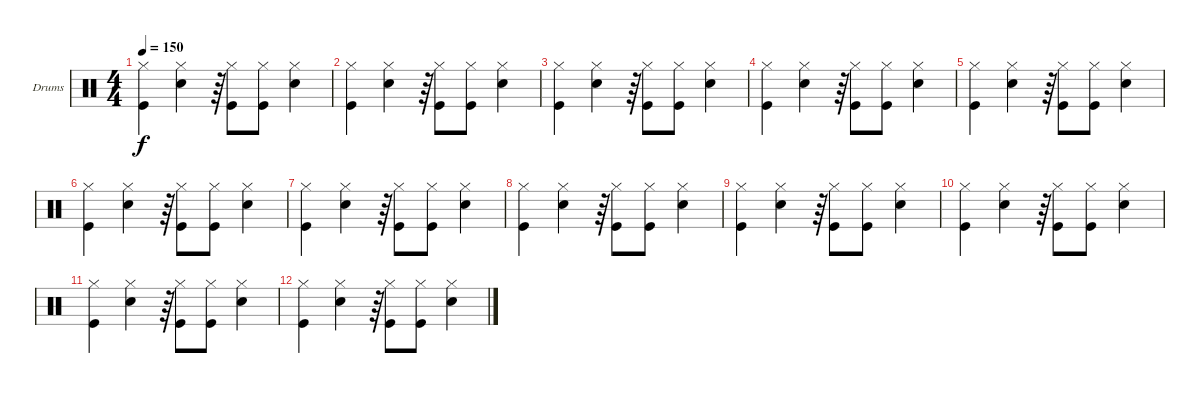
\defaultSystemsLayout 4
\bracketExtendMode groupsimilarinstruments
\firstSystemTrackNameOrientation horizontal
\otherSystemsTrackNameOrientation horizontal
\track ("Drum" "Drums") {instrument percussion}
\staff {score}
\articulation defaults
\ts (4 4)
\tempo 150
\clef neutral
\ks c
("Hi-Hat (closed)" "Kick (hit)").4{dy f} ("Hi-Hat (closed)" "Snare (hit) 2").4 r.64 ("Hi-Hat (closed)" "Kick (hit)").8 ("Hi-Hat (closed)" "Kick (hit)").8 ("Hi-Hat (closed)" "Snare (hit) 2").4 |
("Hi-Hat (closed)" "Kick (hit)").4 ("Hi-Hat (closed)" "Snare (hit) 2").4 r.64 ("Hi-Hat (closed)" "Kick (hit)").8 ("Hi-Hat (closed)" "Kick (hit)").8 ("Hi-Hat (closed)" "Snare (hit) 2").4 |
("Hi-Hat (closed)" "Kick (hit)").4 ("Hi-Hat (closed)" "Snare (hit) 2").4 r.64 ("Hi-Hat (closed)" "Kick (hit)").8 ("Hi-Hat (closed)" "Kick (hit)").8 ("Hi-Hat (closed)" "Snare (hit) 2").4 |
("Hi-Hat (closed)" "Kick (hit)").4 ("Hi-Hat (closed)" "Snare (hit) 2").4 r.64 ("Hi-Hat (closed)" "Kick (hit)").8 ("Hi-Hat (closed)" "Kick (hit)").8 ("Hi-Hat (closed)" "Snare (hit) 2").4 |
("Hi-Hat (closed)" "Kick (hit)").4 ("Hi-Hat (closed)" "Snare (hit) 2").4 r.64 ("Hi-Hat (closed)" "Kick (hit)").8 ("Hi-Hat (closed)" "Kick (hit)").8 ("Hi-Hat (closed)" "Snare (hit) 2").4 |
("Hi-Hat (closed)" "Kick (hit)").4 ("Hi-Hat (closed)" "Snare (hit) 2").4 r.64 ("Hi-Hat (closed)" "Kick (hit)").8 ("Hi-Hat (closed)" "Kick (hit)").8 ("Hi-Hat (closed)" "Snare (hit) 2").4 |
("Hi-Hat (closed)" "Kick (hit)").4 ("Hi-Hat (closed)" "Snare (hit) 2").4 r.64 ("Hi-Hat (closed)" "Kick (hit)").8 ("Hi-Hat (closed)" "Kick (hit)").8 ("Hi-Hat (closed)" "Snare (hit) 2").4 |
("Hi-Hat (closed)" "Kick (hit)").4 ("Hi-Hat (closed)" "Snare (hit) 2").4 r.64 ("Hi-Hat (closed)" "Kick (hit)").8 ("Hi-Hat (closed)" "Kick (hit)").8 ("Hi-Hat (closed)" "Snare (hit) 2").4 |
("Hi-Hat (closed)" "Kick (hit)").4 ("Hi-Hat (closed)" "Snare (hit) 2").4 r.64 ("Hi-Hat (closed)" "Kick (hit)").8 ("Hi-Hat (closed)" "Kick (hit)").8 ("Hi-Hat (closed)" "Snare (hit) 2").4 |
("Hi-Hat (closed)" "Kick (hit)").4 ("Hi-Hat (closed)" "Snare (hit) 2").4 r.64 ("Hi-Hat (closed)" "Kick (hit)").8 ("Hi-Hat (closed)" "Kick (hit)").8 ("Hi-Hat (closed)" "Snare (hit) 2").4 |
("Hi-Hat (closed)" "Kick (hit)").4 ("Hi-Hat (closed)" "Snare (hit) 2").4 r.64 ("Hi-Hat (closed)" "Kick (hit)").8 ("Hi-Hat (closed)" "Kick (hit)").8 ("Hi-Hat (closed)" "Snare (hit) 2").4 |
("Hi-Hat (closed)" "Kick (hit)").4 ("Hi-Hat (closed)" "Snare (hit) 2").4 r.64 ("Hi-Hat (closed)" "Kick (hit)").8 ("Hi-Hat (closed)" "Kick (hit)").8 ("Hi-Hat (closed)" "Snare (hit) 2").4
